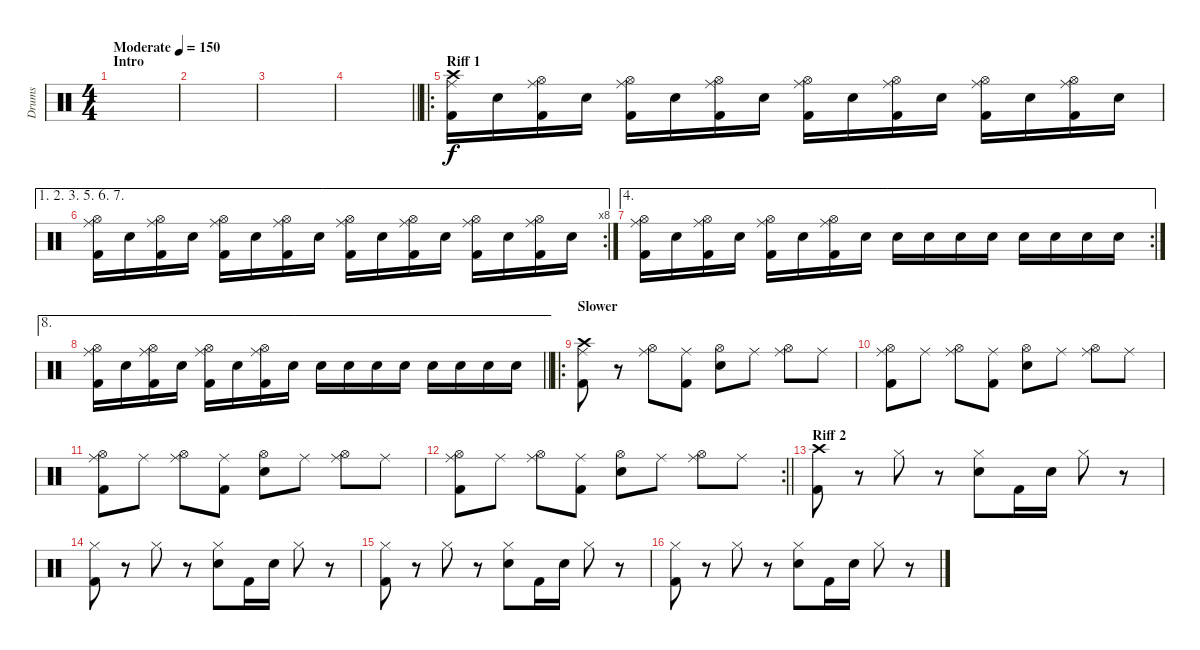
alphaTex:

\track ("Drums" "Drums") {instrument percussion}
\staff {score}
\articulation defaults
\ts (4 4)
\section ("" "Intro")
\tempo (150 "Moderate")
\clef neutral
\ks c
|
|
|
\barLineRight lightlight
|
\ro
\section ("" "Riff 1")
("Crash high (hit)" "Ride (middle)" "Kick (hit) 2").16 "Electric Snare (hit)".16 ("Hi-Hat (open)" "Ride (middle)" "Kick (hit) 2").16 "Electric Snare (hit)".16 ("Hi-Hat (open)" "Ride (middle)" "Kick (hit) 2").16 "Electric Snare (hit)".16 ("Hi-Hat (open)" "Ride (middle)" "Kick (hit) 2").16 "Electric Snare (hit)".16 ("Hi-Hat (open)" "Ride (middle)" "Kick (hit) 2").16 "Electric Snare (hit)".16 ("Hi-Hat (open)" "Ride (middle)" "Kick (hit) 2").16 "Electric Snare (hit)".16 ("Hi-Hat (open)" "Ride (middle)" "Kick (hit) 2").16 "Electric Snare (hit)".16 ("Hi-Hat (open)" "Ride (middle)" "Kick (hit) 2").16 "Electric Snare (hit)".16 |
\ae (1 2 3 5 6 7)
\rc 8
("Hi-Hat (open)" "Ride (middle)" "Kick (hit) 2").16 "Electric Snare (hit)".16 ("Hi-Hat (open)" "Ride (middle)" "Kick (hit) 2").16 "Electric Snare (hit)".16 ("Hi-Hat (open)" "Ride (middle)" "Kick (hit) 2").16 "Electric Snare (hit)".16 ("Hi-Hat (open)" "Ride (middle)" "Kick (hit) 2").16 "Electric Snare (hit)".16 ("Hi-Hat (open)" "Ride (middle)" "Kick (hit) 2").16 "Electric Snare (hit)".16 ("Hi-Hat (open)" "Ride (middle)" "Kick (hit) 2").16 "Electric Snare (hit)".16 ("Hi-Hat (open)" "Ride (middle)" "Kick (hit) 2").16 "Electric Snare (hit)".16 ("Hi-Hat (open)" "Ride (middle)" "Kick (hit) 2").16 "Electric Snare (hit)".16 |
\ae 4
\rc 2
("Hi-Hat (open)" "Ride (middle)" "Kick (hit) 2").16 "Electric Snare (hit)".16 ("Hi-Hat (open)" "Ride (middle)" "Kick (hit) 2").16 "Electric Snare (hit)".16 ("Hi-Hat (open)" "Ride (middle)" "Kick (hit) 2").16 "Electric Snare (hit)".16 ("Hi-Hat (open)" "Ride (middle)" "Kick (hit) 2").16 "Electric Snare (hit)".16 "Electric Snare (hit)".16 "Electric Snare (hit)".16 "Electric Snare (hit)".16 "Electric Snare (hit)".16 "Electric Snare (hit)".16 "Electric Snare (hit)".16 "Electric Snare (hit)".16 "Electric Snare (hit)".16 |
\ae 8
\barLineRight lightlight
("Hi-Hat (open)" "Ride (middle)" "Kick (hit) 2").16 "Electric Snare (hit)".16 ("Hi-Hat (open)" "Ride (middle)" "Kick (hit) 2").16 "Electric Snare (hit)".16 ("Hi-Hat (open)" "Ride (middle)" "Kick (hit) 2").16 "Electric Snare (hit)".16 ("Hi-Hat (open)" "Ride (middle)" "Kick (hit) 2").16 "Electric Snare (hit)".16 "Electric Snare (hit)".16 "Electric Snare (hit)".16 "Electric Snare (hit)".16 "Electric Snare (hit)".16 "Electric Snare (hit)".16 "Electric Snare (hit)".16 "Electric Snare (hit)".16 "Electric Snare (hit)".16 |
\ro
\section ("" "Slower")
("Crash high (hit)" "Ride (middle)" "Kick (hit) 2").8 r.8 ("Hi-Hat (open)" "Ride (middle)").8 ("Ride (middle)" "Kick (hit) 2").8 ("Hi-Hat (open)" "Electric Snare (hit)").8 "Ride (middle)".8 ("Hi-Hat (open)" "Ride (middle)").8 "Ride (middle)".8 |
("Hi-Hat (open)" "Ride (middle)" "Kick (hit) 2").8 "Ride (middle)".8 ("Hi-Hat (open)" "Ride (middle)").8 ("Ride (middle)" "Kick (hit) 2").8 ("Hi-Hat (open)" "Electric Snare (hit)").8 "Ride (middle)".8 ("Hi-Hat (open)" "Ride (middle)").8 "Ride (middle)".8 |
("Hi-Hat (open)" "Ride (middle)" "Kick (hit) 2").8 "Ride (middle)".8 ("Hi-Hat (open)" "Ride (middle)").8 ("Ride (middle)" "Kick (hit) 2").8 ("Hi-Hat (open)" "Electric Snare (hit)").8 "Ride (middle)".8 ("Hi-Hat (open)" "Ride (middle)").8 "Ride (middle)".8 |
\rc 2
\barLineRight lightlight
("Hi-Hat (open)" "Ride (middle)" "Kick (hit) 2").8 "Ride (middle)".8 ("Hi-Hat (open)" "Ride (middle)").8 ("Ride (middle)" "Kick (hit) 2").8 ("Hi-Hat (open)" "Electric Snare (hit)").8 "Ride (middle)".8 ("Hi-Hat (open)" "Ride (middle)").8 "Ride (middle)".8 |
\section ("" "Riff 2")
("Crash high (hit)" "Kick (hit) 2").8 r.8 "Hi-Hat (closed)".8 r.8 ("Hi-Hat (closed)" "Electric Snare (hit)").8 "Kick (hit) 2".16 "Electric Snare (hit)".16 "Hi-Hat (closed)".8 r.8 |
("Hi-Hat (closed)" "Kick (hit) 2").8 r.8 "Hi-Hat (closed)".8 r.8 ("Hi-Hat (closed)" "Electric Snare (hit)").8 "Kick (hit) 2".16 "Electric Snare (hit)".16 "Hi-Hat (closed)".8 r.8 |
("Hi-Hat (closed)" "Kick (hit) 2").8 r.8 "Hi-Hat (closed)".8 r.8 ("Hi-Hat (closed)" "Electric Snare (hit)").8 "Kick (hit) 2".16 "Electric Snare (hit)".16 "Hi-Hat (closed)".8 r.8 |
("Hi-Hat (closed)" "Kick (hit) 2").8 r.8 "Hi-Hat (closed)".8 r.8 ("Hi-Hat (closed)" "Electric Snare (hit)").8 "Kick (hit) 2".16 "Electric Snare (hit)".16 "Hi-Hat (closed)".8 r.8
